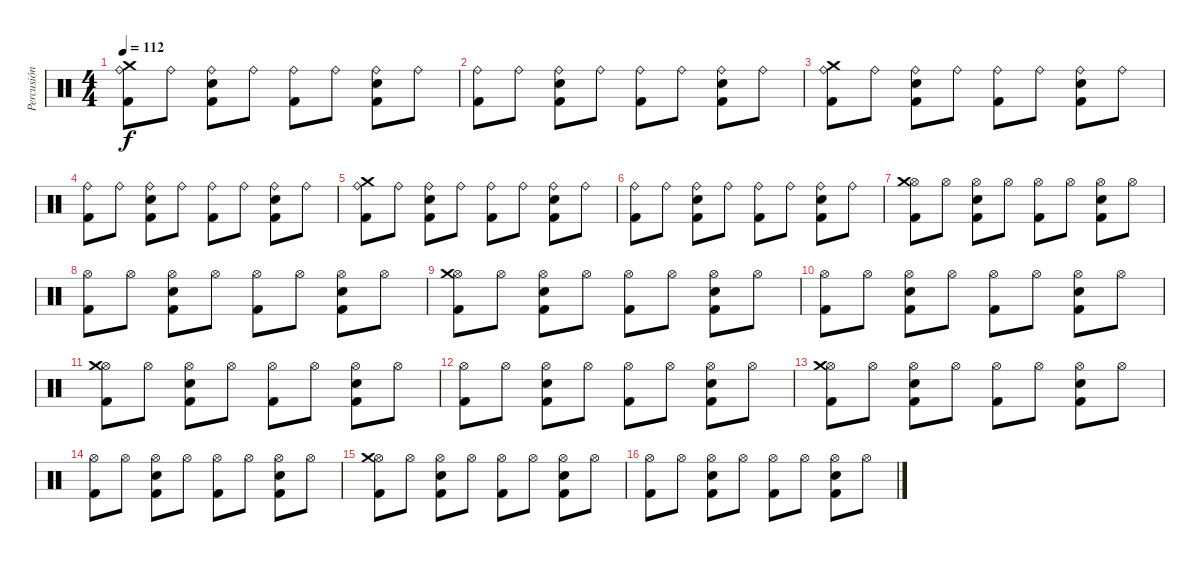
\track ("Percusión" "Percusión") {instrument percussion}
\staff {score}
\articulation defaults
\ts (4 4)
\tempo 112
\clef neutral
\ks c
("Kick (hit) 2" "Ride (bell)" "Crash medium (hit)").8{dy f} "Ride (bell)".8 ("Kick (hit) 2" "Ride (bell)" "Electric Snare (hit)").8 "Ride (bell)".8 ("Kick (hit) 2" "Ride (bell)").8 "Ride (bell)".8 ("Kick (hit) 2" "Ride (bell)" "Electric Snare (hit)").8 "Ride (bell)".8 |
("Kick (hit) 2" "Ride (bell)").8 "Ride (bell)".8 ("Kick (hit) 2" "Ride (bell)" "Electric Snare (hit)").8 "Ride (bell)".8 ("Kick (hit) 2" "Ride (bell)").8 "Ride (bell)".8 ("Kick (hit) 2" "Ride (bell)" "Electric Snare (hit)").8 "Ride (bell)".8 |
("Kick (hit) 2" "Ride (bell)" "Crash medium (hit)").8 "Ride (bell)".8 ("Kick (hit) 2" "Ride (bell)" "Electric Snare (hit)").8 "Ride (bell)".8 ("Kick (hit) 2" "Ride (bell)").8 "Ride (bell)".8 ("Kick (hit) 2" "Ride (bell)" "Electric Snare (hit)").8 "Ride (bell)".8 |
("Kick (hit) 2" "Ride (bell)").8 "Ride (bell)".8 ("Kick (hit) 2" "Ride (bell)" "Electric Snare (hit)").8 "Ride (bell)".8 ("Kick (hit) 2" "Ride (bell)").8 "Ride (bell)".8 ("Kick (hit) 2" "Ride (bell)" "Electric Snare (hit)").8 "Ride (bell)".8 |
("Kick (hit) 2" "Ride (bell)" "Crash medium (hit)").8 "Ride (bell)".8 ("Kick (hit) 2" "Ride (bell)" "Electric Snare (hit)").8 "Ride (bell)".8 ("Kick (hit) 2" "Ride (bell)").8 "Ride (bell)".8 ("Kick (hit) 2" "Ride (bell)" "Electric Snare (hit)").8 "Ride (bell)".8 |
("Kick (hit) 2" "Ride (bell)").8 "Ride (bell)".8 ("Kick (hit) 2" "Ride (bell)" "Electric Snare (hit)").8 "Ride (bell)".8 ("Kick (hit) 2" "Ride (bell)").8 "Ride (bell)".8 ("Kick (hit) 2" "Ride (bell)" "Electric Snare (hit)").8 "Ride (bell)".8 |
("Kick (hit) 2" "Hi-Hat (open)" "Crash medium (hit)").8 "Hi-Hat (open)".8 ("Kick (hit) 2" "Hi-Hat (open)" "Electric Snare (hit)").8 "Hi-Hat (open)".8 ("Kick (hit) 2" "Hi-Hat (open)").8 "Hi-Hat (open)".8 ("Kick (hit) 2" "Hi-Hat (open)" "Electric Snare (hit)").8 "Hi-Hat (open)".8 |
("Kick (hit) 2" "Hi-Hat (open)").8 "Hi-Hat (open)".8 ("Kick (hit) 2" "Hi-Hat (open)" "Electric Snare (hit)").8 "Hi-Hat (open)".8 ("Kick (hit) 2" "Hi-Hat (open)").8 "Hi-Hat (open)".8 ("Kick (hit) 2" "Hi-Hat (open)" "Electric Snare (hit)").8 "Hi-Hat (open)".8 |
("Kick (hit) 2" "Hi-Hat (open)" "Crash medium (hit)").8 "Hi-Hat (open)".8 ("Kick (hit) 2" "Hi-Hat (open)" "Electric Snare (hit)").8 "Hi-Hat (open)".8 ("Kick (hit) 2" "Hi-Hat (open)").8 "Hi-Hat (open)".8 ("Kick (hit) 2" "Hi-Hat (open)" "Electric Snare (hit)").8 "Hi-Hat (open)".8 |
("Kick (hit) 2" "Hi-Hat (open)").8 "Hi-Hat (open)".8 ("Kick (hit) 2" "Hi-Hat (open)" "Electric Snare (hit)").8 "Hi-Hat (open)".8 ("Kick (hit) 2" "Hi-Hat (open)").8 "Hi-Hat (open)".8 ("Kick (hit) 2" "Hi-Hat (open)" "Electric Snare (hit)").8 "Hi-Hat (open)".8 |
("Kick (hit) 2" "Hi-Hat (open)" "Crash medium (hit)").8 "Hi-Hat (open)".8 ("Kick (hit) 2" "Hi-Hat (open)" "Electric Snare (hit)").8 "Hi-Hat (open)".8 ("Kick (hit) 2" "Hi-Hat (open)").8 "Hi-Hat (open)".8 ("Kick (hit) 2" "Hi-Hat (open)" "Electric Snare (hit)").8 "Hi-Hat (open)".8 |
("Kick (hit) 2" "Hi-Hat (open)").8 "Hi-Hat (open)".8 ("Kick (hit) 2" "Hi-Hat (open)" "Electric Snare (hit)").8 "Hi-Hat (open)".8 ("Kick (hit) 2" "Hi-Hat (open)").8 "Hi-Hat (open)".8 ("Kick (hit) 2" "Hi-Hat (open)" "Electric Snare (hit)").8 "Hi-Hat (open)".8 |
("Kick (hit) 2" "Hi-Hat (open)" "Crash medium (hit)").8 "Hi-Hat (open)".8 ("Kick (hit) 2" "Hi-Hat (open)" "Electric Snare (hit)").8 "Hi-Hat (open)".8 ("Kick (hit) 2" "Hi-Hat (open)").8 "Hi-Hat (open)".8 ("Kick (hit) 2" "Hi-Hat (open)" "Electric Snare (hit)").8 "Hi-Hat (open)".8 |
("Kick (hit) 2" "Hi-Hat (open)").8 "Hi-Hat (open)".8 ("Kick (hit) 2" "Hi-Hat (open)" "Electric Snare (hit)").8 "Hi-Hat (open)".8 ("Kick (hit) 2" "Hi-Hat (open)").8 "Hi-Hat (open)".8 ("Kick (hit) 2" "Hi-Hat (open)" "Electric Snare (hit)").8 "Hi-Hat (open)".8 |
("Kick (hit) 2" "Hi-Hat (open)" "Crash medium (hit)").8 "Hi-Hat (open)".8 ("Kick (hit) 2" "Hi-Hat (open)" "Electric Snare (hit)").8 "Hi-Hat (open)".8 ("Kick (hit) 2" "Hi-Hat (open)").8 "Hi-Hat (open)".8 ("Kick (hit) 2" "Hi-Hat (open)" "Electric Snare (hit)").8 "Hi-Hat (open)".8 |
("Kick (hit) 2" "Hi-Hat (open)").8 "Hi-Hat (open)".8 ("Kick (hit) 2" "Hi-Hat (open)" "Electric Snare (hit)").8 "Hi-Hat (open)".8 ("Kick (hit) 2" "Hi-Hat (open)").8 "Hi-Hat (open)".8 ("Kick (hit) 2" "Hi-Hat (open)" "Electric Snare (hit)").8 "Hi-Hat (open)".8
